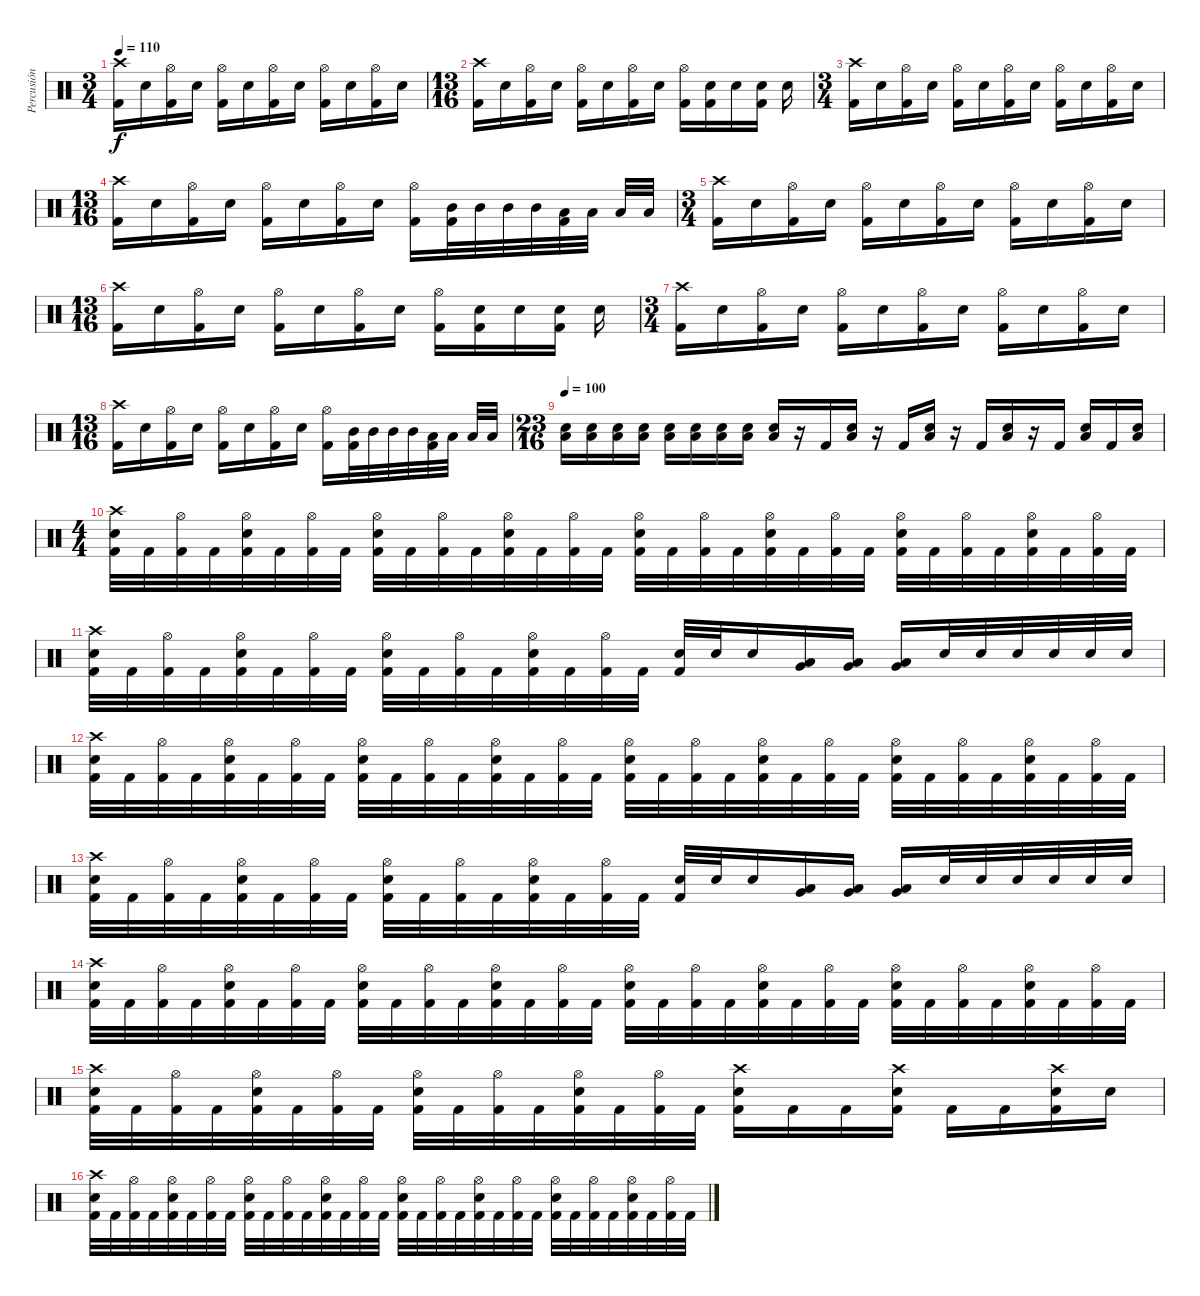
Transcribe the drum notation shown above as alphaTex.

\track ("Percusión" "Percusión") {instrument percussion}
\staff {score}
\articulation defaults
\ts (3 4)
\tempo 110
\clef neutral
\ks c
("Crash high (hit)" "Kick (hit) 2").16{dy f} "Electric Snare (hit)".16 ("Hi-Hat (open)" "Kick (hit) 2").16 "Electric Snare (hit)".16 ("Hi-Hat (open)" "Kick (hit) 2").16 "Electric Snare (hit)".16 ("Hi-Hat (open)" "Kick (hit) 2").16 "Electric Snare (hit)".16 ("Hi-Hat (open)" "Kick (hit) 2").16 "Electric Snare (hit)".16 ("Hi-Hat (open)" "Kick (hit) 2").16 "Electric Snare (hit)".16 |
\ts (13 16)
("Crash high (hit)" "Kick (hit) 2").16 "Electric Snare (hit)".16 ("Hi-Hat (open)" "Kick (hit) 2").16 "Electric Snare (hit)".16 ("Hi-Hat (open)" "Kick (hit) 2").16 "Electric Snare (hit)".16 ("Hi-Hat (open)" "Kick (hit) 2").16 "Electric Snare (hit)".16 ("Hi-Hat (open)" "Kick (hit) 2").16 ("Electric Snare (hit)" "Kick (hit) 2").16 "Electric Snare (hit)".16 ("Electric Snare (hit)" "Kick (hit) 2").16 "Electric Snare (hit)".16 |
\ts (3 4)
("Crash high (hit)" "Kick (hit) 2").16 "Electric Snare (hit)".16 ("Hi-Hat (open)" "Kick (hit) 2").16 "Electric Snare (hit)".16 ("Hi-Hat (open)" "Kick (hit) 2").16 "Electric Snare (hit)".16 ("Hi-Hat (open)" "Kick (hit) 2").16 "Electric Snare (hit)".16 ("Hi-Hat (open)" "Kick (hit) 2").16 "Electric Snare (hit)".16 ("Hi-Hat (open)" "Kick (hit) 2").16 "Electric Snare (hit)".16 |
\ts (13 16)
("Crash high (hit)" "Kick (hit) 2").16 "Electric Snare (hit)".16 ("Hi-Hat (open)" "Kick (hit) 2").16 "Electric Snare (hit)".16 ("Hi-Hat (open)" "Kick (hit) 2").16 "Electric Snare (hit)".16 ("Hi-Hat (open)" "Kick (hit) 2").16 "Electric Snare (hit)".16 ("Hi-Hat (open)" "Kick (hit) 2").16 ("Mid Tom (hit)" "Kick (hit) 2").32 "Mid Tom (hit)".32 "Mid Tom (hit)".32 "Mid Tom (hit)".32 ("Low Tom (hit)" "Kick (hit) 2").32 "Low Tom (hit)".32 "Low Tom (hit)".32 "Low Tom (hit)".32 |
\ts (3 4)
("Crash high (hit)" "Kick (hit) 2").16 "Electric Snare (hit)".16 ("Hi-Hat (open)" "Kick (hit) 2").16 "Electric Snare (hit)".16 ("Hi-Hat (open)" "Kick (hit) 2").16 "Electric Snare (hit)".16 ("Hi-Hat (open)" "Kick (hit) 2").16 "Electric Snare (hit)".16 ("Hi-Hat (open)" "Kick (hit) 2").16 "Electric Snare (hit)".16 ("Hi-Hat (open)" "Kick (hit) 2").16 "Electric Snare (hit)".16 |
\ts (13 16)
("Crash high (hit)" "Kick (hit) 2").16 "Electric Snare (hit)".16 ("Hi-Hat (open)" "Kick (hit) 2").16 "Electric Snare (hit)".16 ("Hi-Hat (open)" "Kick (hit) 2").16 "Electric Snare (hit)".16 ("Hi-Hat (open)" "Kick (hit) 2").16 "Electric Snare (hit)".16 ("Hi-Hat (open)" "Kick (hit) 2").16 ("Electric Snare (hit)" "Kick (hit) 2").16 "Electric Snare (hit)".16 ("Electric Snare (hit)" "Kick (hit) 2").16 "Electric Snare (hit)".16 |
\ts (3 4)
("Crash high (hit)" "Kick (hit) 2").16 "Electric Snare (hit)".16 ("Hi-Hat (open)" "Kick (hit) 2").16 "Electric Snare (hit)".16 ("Hi-Hat (open)" "Kick (hit) 2").16 "Electric Snare (hit)".16 ("Hi-Hat (open)" "Kick (hit) 2").16 "Electric Snare (hit)".16 ("Hi-Hat (open)" "Kick (hit) 2").16 "Electric Snare (hit)".16 ("Hi-Hat (open)" "Kick (hit) 2").16 "Electric Snare (hit)".16 |
\ts (13 16)
("Crash high (hit)" "Kick (hit) 2").16 "Electric Snare (hit)".16 ("Hi-Hat (open)" "Kick (hit) 2").16 "Electric Snare (hit)".16 ("Hi-Hat (open)" "Kick (hit) 2").16 "Electric Snare (hit)".16 ("Hi-Hat (open)" "Kick (hit) 2").16 "Electric Snare (hit)".16 ("Hi-Hat (open)" "Kick (hit) 2").16 ("Mid Tom (hit)" "Kick (hit) 2").32 "Mid Tom (hit)".32 "Mid Tom (hit)".32 "Mid Tom (hit)".32 ("Low Tom (hit)" "Kick (hit) 2").32 "Low Tom (hit)".32 "Low Tom (hit)".32 "Low Tom (hit)".32 |
\ts (23 16)
\tempo 100
("Electric Snare (hit)" "Low Floor Tom (hit)").16 ("Electric Snare (hit)" "Low Floor Tom (hit)").16 ("Electric Snare (hit)" "Low Floor Tom (hit)").16 ("Electric Snare (hit)" "Low Floor Tom (hit)").16 ("Electric Snare (hit)" "Low Floor Tom (hit)").16 ("Electric Snare (hit)" "Low Floor Tom (hit)").16 ("Electric Snare (hit)" "Low Floor Tom (hit)").16 ("Electric Snare (hit)" "Low Floor Tom (hit)").16 ("Electric Snare (hit)" "Low Floor Tom (hit)").16 r.16 "Kick (hit) 2".16 ("Electric Snare (hit)" "Low Floor Tom (hit)").16 r.16 "Kick (hit) 2".16 ("Electric Snare (hit)" "Low Floor Tom (hit)").16 r.16 "Kick (hit) 2".16 ("Electric Snare (hit)" "Low Floor Tom (hit)").16 r.16 "Kick (hit) 2".16 ("Electric Snare (hit)" "Low Floor Tom (hit)").16 "Kick (hit) 2".16 ("Low Floor Tom (hit)" "Electric Snare (hit)").16 |
\ts (4 4)
("Crash high (hit)" "Electric Snare (hit)" "Kick (hit) 2").32 "Kick (hit) 2".32 ("Hi-Hat (open)" "Kick (hit) 2").32 "Kick (hit) 2".32 ("Hi-Hat (open)" "Electric Snare (hit)" "Kick (hit) 2").32 "Kick (hit) 2".32 ("Hi-Hat (open)" "Kick (hit) 2").32 "Kick (hit) 2".32 ("Hi-Hat (open)" "Electric Snare (hit)" "Kick (hit) 2").32 "Kick (hit) 2".32 ("Hi-Hat (open)" "Kick (hit) 2").32 "Kick (hit) 2".32 ("Hi-Hat (open)" "Electric Snare (hit)" "Kick (hit) 2").32 "Kick (hit) 2".32 ("Hi-Hat (open)" "Kick (hit) 2").32 "Kick (hit) 2".32 ("Hi-Hat (open)" "Electric Snare (hit)" "Kick (hit) 2").32 "Kick (hit) 2".32 ("Hi-Hat (open)" "Kick (hit) 2").32 "Kick (hit) 2".32 ("Hi-Hat (open)" "Electric Snare (hit)" "Kick (hit) 2").32 "Kick (hit) 2".32 ("Hi-Hat (open)" "Kick (hit) 2").32 "Kick (hit) 2".32 ("Hi-Hat (open)" "Electric Snare (hit)" "Kick (hit) 2").32 "Kick (hit) 2".32 ("Hi-Hat (open)" "Kick (hit) 2").32 "Kick (hit) 2".32 ("Hi-Hat (open)" "Electric Snare (hit)" "Kick (hit) 2").32 "Kick (hit) 2".32 ("Hi-Hat (open)" "Kick (hit) 2").32 "Kick (hit) 2".32 |
("Crash high (hit)" "Electric Snare (hit)" "Kick (hit) 2").32 "Kick (hit) 2".32 ("Hi-Hat (open)" "Kick (hit) 2").32 "Kick (hit) 2".32 ("Hi-Hat (open)" "Electric Snare (hit)" "Kick (hit) 2").32 "Kick (hit) 2".32 ("Hi-Hat (open)" "Kick (hit) 2").32 "Kick (hit) 2".32 ("Hi-Hat (open)" "Electric Snare (hit)" "Kick (hit) 2").32 "Kick (hit) 2".32 ("Hi-Hat (open)" "Kick (hit) 2").32 "Kick (hit) 2".32 ("Hi-Hat (open)" "Electric Snare (hit)" "Kick (hit) 2").32 "Kick (hit) 2".32 ("Hi-Hat (open)" "Kick (hit) 2").32 "Kick (hit) 2".32 ("Electric Snare (hit)" "Kick (hit) 2").32 "Electric Snare (hit)".32 "Electric Snare (hit)".16 ("Very Low Tom (hit)" "Low Floor Tom (hit)").16 ("Very Low Tom (hit)" "Low Floor Tom (hit)").16 ("Very Low Tom (hit)" "Low Floor Tom (hit)").16 "Electric Snare (hit)".32 "Electric Snare (hit)".32 "Electric Snare (hit)".32 "Electric Snare (hit)".32 "Electric Snare (hit)".32 "Electric Snare (hit)".32 |
("Crash high (hit)" "Electric Snare (hit)" "Kick (hit) 2").32 "Kick (hit) 2".32 ("Hi-Hat (open)" "Kick (hit) 2").32 "Kick (hit) 2".32 ("Hi-Hat (open)" "Electric Snare (hit)" "Kick (hit) 2").32 "Kick (hit) 2".32 ("Hi-Hat (open)" "Kick (hit) 2").32 "Kick (hit) 2".32 ("Hi-Hat (open)" "Electric Snare (hit)" "Kick (hit) 2").32 "Kick (hit) 2".32 ("Hi-Hat (open)" "Kick (hit) 2").32 "Kick (hit) 2".32 ("Hi-Hat (open)" "Electric Snare (hit)" "Kick (hit) 2").32 "Kick (hit) 2".32 ("Hi-Hat (open)" "Kick (hit) 2").32 "Kick (hit) 2".32 ("Hi-Hat (open)" "Electric Snare (hit)" "Kick (hit) 2").32 "Kick (hit) 2".32 ("Hi-Hat (open)" "Kick (hit) 2").32 "Kick (hit) 2".32 ("Hi-Hat (open)" "Electric Snare (hit)" "Kick (hit) 2").32 "Kick (hit) 2".32 ("Hi-Hat (open)" "Kick (hit) 2").32 "Kick (hit) 2".32 ("Hi-Hat (open)" "Electric Snare (hit)" "Kick (hit) 2").32 "Kick (hit) 2".32 ("Hi-Hat (open)" "Kick (hit) 2").32 "Kick (hit) 2".32 ("Hi-Hat (open)" "Electric Snare (hit)" "Kick (hit) 2").32 "Kick (hit) 2".32 ("Hi-Hat (open)" "Kick (hit) 2").32 "Kick (hit) 2".32 |
("Crash high (hit)" "Electric Snare (hit)" "Kick (hit) 2").32 "Kick (hit) 2".32 ("Hi-Hat (open)" "Kick (hit) 2").32 "Kick (hit) 2".32 ("Hi-Hat (open)" "Electric Snare (hit)" "Kick (hit) 2").32 "Kick (hit) 2".32 ("Hi-Hat (open)" "Kick (hit) 2").32 "Kick (hit) 2".32 ("Hi-Hat (open)" "Electric Snare (hit)" "Kick (hit) 2").32 "Kick (hit) 2".32 ("Hi-Hat (open)" "Kick (hit) 2").32 "Kick (hit) 2".32 ("Hi-Hat (open)" "Electric Snare (hit)" "Kick (hit) 2").32 "Kick (hit) 2".32 ("Hi-Hat (open)" "Kick (hit) 2").32 "Kick (hit) 2".32 ("Electric Snare (hit)" "Kick (hit) 2").32 "Electric Snare (hit)".32 "Electric Snare (hit)".16 ("Very Low Tom (hit)" "Low Floor Tom (hit)").16 ("Very Low Tom (hit)" "Low Floor Tom (hit)").16 ("Very Low Tom (hit)" "Low Floor Tom (hit)").16 "Electric Snare (hit)".32 "Electric Snare (hit)".32 "Electric Snare (hit)".32 "Electric Snare (hit)".32 "Electric Snare (hit)".32 "Electric Snare (hit)".32 |
("Crash high (hit)" "Electric Snare (hit)" "Kick (hit) 2").32 "Kick (hit) 2".32 ("Hi-Hat (open)" "Kick (hit) 2").32 "Kick (hit) 2".32 ("Hi-Hat (open)" "Electric Snare (hit)" "Kick (hit) 2").32 "Kick (hit) 2".32 ("Hi-Hat (open)" "Kick (hit) 2").32 "Kick (hit) 2".32 ("Hi-Hat (open)" "Electric Snare (hit)" "Kick (hit) 2").32 "Kick (hit) 2".32 ("Hi-Hat (open)" "Kick (hit) 2").32 "Kick (hit) 2".32 ("Hi-Hat (open)" "Electric Snare (hit)" "Kick (hit) 2").32 "Kick (hit) 2".32 ("Hi-Hat (open)" "Kick (hit) 2").32 "Kick (hit) 2".32 ("Hi-Hat (open)" "Electric Snare (hit)" "Kick (hit) 2").32 "Kick (hit) 2".32 ("Hi-Hat (open)" "Kick (hit) 2").32 "Kick (hit) 2".32 ("Hi-Hat (open)" "Electric Snare (hit)" "Kick (hit) 2").32 "Kick (hit) 2".32 ("Hi-Hat (open)" "Kick (hit) 2").32 "Kick (hit) 2".32 ("Hi-Hat (open)" "Electric Snare (hit)" "Kick (hit) 2").32 "Kick (hit) 2".32 ("Hi-Hat (open)" "Kick (hit) 2").32 "Kick (hit) 2".32 ("Hi-Hat (open)" "Electric Snare (hit)" "Kick (hit) 2").32 "Kick (hit) 2".32 ("Hi-Hat (open)" "Kick (hit) 2").32 "Kick (hit) 2".32 |
("Crash high (hit)" "Electric Snare (hit)" "Kick (hit) 2").32 "Kick (hit) 2".32 ("Hi-Hat (open)" "Kick (hit) 2").32 "Kick (hit) 2".32 ("Hi-Hat (open)" "Electric Snare (hit)" "Kick (hit) 2").32 "Kick (hit) 2".32 ("Hi-Hat (open)" "Kick (hit) 2").32 "Kick (hit) 2".32 ("Hi-Hat (open)" "Electric Snare (hit)" "Kick (hit) 2").32 "Kick (hit) 2".32 ("Hi-Hat (open)" "Kick (hit) 2").32 "Kick (hit) 2".32 ("Hi-Hat (open)" "Electric Snare (hit)" "Kick (hit) 2").32 "Kick (hit) 2".32 ("Hi-Hat (open)" "Kick (hit) 2").32 "Kick (hit) 2".32 ("Crash high (hit)" "Electric Snare (hit)" "Kick (hit) 2").16 "Kick (hit) 2".16 "Kick (hit) 2".16 ("Crash high (hit)" "Electric Snare (hit)" "Kick (hit) 2").16 "Kick (hit) 2".16 "Kick (hit) 2".16 ("Crash high (hit)" "Electric Snare (hit)" "Kick (hit) 2").16 "Electric Snare (hit)".16 |
("Crash high (hit)" "Electric Snare (hit)" "Kick (hit) 2").32 "Kick (hit) 2".32 ("Hi-Hat (open)" "Kick (hit) 2").32 "Kick (hit) 2".32 ("Hi-Hat (open)" "Electric Snare (hit)" "Kick (hit) 2").32 "Kick (hit) 2".32 ("Hi-Hat (open)" "Kick (hit) 2").32 "Kick (hit) 2".32 ("Hi-Hat (open)" "Electric Snare (hit)" "Kick (hit) 2").32 "Kick (hit) 2".32 ("Hi-Hat (open)" "Kick (hit) 2").32 "Kick (hit) 2".32 ("Hi-Hat (open)" "Electric Snare (hit)" "Kick (hit) 2").32 "Kick (hit) 2".32 ("Hi-Hat (open)" "Kick (hit) 2").32 "Kick (hit) 2".32 ("Hi-Hat (open)" "Electric Snare (hit)" "Kick (hit) 2").32 "Kick (hit) 2".32 ("Hi-Hat (open)" "Kick (hit) 2").32 "Kick (hit) 2".32 ("Hi-Hat (open)" "Electric Snare (hit)" "Kick (hit) 2").32 "Kick (hit) 2".32 ("Hi-Hat (open)" "Kick (hit) 2").32 "Kick (hit) 2".32 ("Hi-Hat (open)" "Electric Snare (hit)" "Kick (hit) 2").32 "Kick (hit) 2".32 ("Hi-Hat (open)" "Kick (hit) 2").32 "Kick (hit) 2".32 ("Hi-Hat (open)" "Electric Snare (hit)" "Kick (hit) 2").32 "Kick (hit) 2".32 ("Hi-Hat (open)" "Kick (hit) 2").32 "Kick (hit) 2".32
